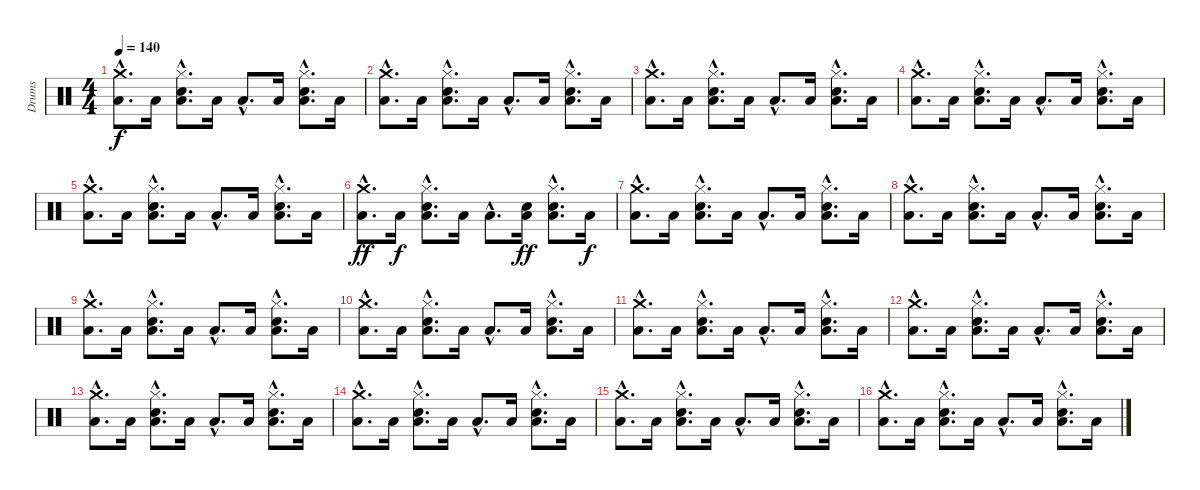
\track ("Drums" "Drums") {instrument percussion}
\staff {score}
\articulation defaults
\ts (4 4)
\tempo 140
\clef neutral
\ks c
("Crash medium (hit)"{hac} "Low Floor Tom (hit)"{hac}).8{d dy f} "Low Floor Tom (hit)".16 ("Hi-Hat (closed)"{hac} "Snare (hit) 2"{hac} "Low Floor Tom (hit)"{hac}).8{d} "Low Floor Tom (hit)".16 "Low Floor Tom (hit)"{hac}.8{d} "Low Floor Tom (hit)".16 ("Hi-Hat (closed)"{hac} "Snare (hit) 2"{hac} "Low Floor Tom (hit)"{hac}).8{d} "Low Floor Tom (hit)".16 |
("Crash medium (hit)"{hac} "Low Floor Tom (hit)"{hac}).8{d} "Low Floor Tom (hit)".16 ("Hi-Hat (closed)"{hac} "Snare (hit) 2"{hac} "Low Floor Tom (hit)"{hac}).8{d} "Low Floor Tom (hit)".16 "Low Floor Tom (hit)"{hac}.8{d} "Low Floor Tom (hit)".16 ("Hi-Hat (closed)"{hac} "Snare (hit) 2"{hac} "Low Floor Tom (hit)"{hac}).8{d} "Low Floor Tom (hit)".16 |
("Crash medium (hit)"{hac} "Low Floor Tom (hit)"{hac}).8{d} "Low Floor Tom (hit)".16 ("Hi-Hat (closed)"{hac} "Snare (hit) 2"{hac} "Low Floor Tom (hit)"{hac}).8{d} "Low Floor Tom (hit)".16 "Low Floor Tom (hit)"{hac}.8{d} "Low Floor Tom (hit)".16 ("Hi-Hat (closed)"{hac} "Snare (hit) 2"{hac} "Low Floor Tom (hit)"{hac}).8{d} "Low Floor Tom (hit)".16 |
("Crash medium (hit)"{hac} "Low Floor Tom (hit)"{hac}).8{d} "Low Floor Tom (hit)".16 ("Hi-Hat (closed)"{hac} "Snare (hit) 2"{hac} "Low Floor Tom (hit)"{hac}).8{d} "Low Floor Tom (hit)".16 "Low Floor Tom (hit)"{hac}.8{d} "Low Floor Tom (hit)".16 ("Hi-Hat (closed)"{hac} "Snare (hit) 2"{hac} "Low Floor Tom (hit)"{hac}).8{d} "Low Floor Tom (hit)".16 |
("Crash medium (hit)"{hac} "Low Floor Tom (hit)"{hac}).8{d} "Low Floor Tom (hit)".16 ("Hi-Hat (closed)"{hac} "Snare (hit) 2"{hac} "Low Floor Tom (hit)"{hac}).8{d} "Low Floor Tom (hit)".16 "Low Floor Tom (hit)"{hac}.8{d} "Low Floor Tom (hit)".16 ("Hi-Hat (closed)"{hac} "Snare (hit) 2"{hac} "Low Floor Tom (hit)"{hac}).8{d} "Low Floor Tom (hit)".16 |
("Crash medium (hit)"{hac} "Low Floor Tom (hit)"{hac}).8{d dy ff} "Low Floor Tom (hit)".16{dy f} ("Hi-Hat (closed)"{hac} "Snare (hit) 2"{hac} "Low Floor Tom (hit)"{hac}).8{d} "Low Floor Tom (hit)".16 "Low Floor Tom (hit)"{hac}.8{d} ("Snare (hit) 2" "Low Floor Tom (hit)").16{dy ff} ("Hi-Hat (closed)"{hac} "Snare (hit) 2"{hac} "Low Floor Tom (hit)"{hac}).8{d} "Low Floor Tom (hit)".16{dy f} |
("Crash medium (hit)"{hac} "Low Floor Tom (hit)"{hac}).8{d} "Low Floor Tom (hit)".16 ("Hi-Hat (closed)"{hac} "Snare (hit) 2"{hac} "Low Floor Tom (hit)"{hac}).8{d} "Low Floor Tom (hit)".16 "Low Floor Tom (hit)"{hac}.8{d} "Low Floor Tom (hit)".16 ("Hi-Hat (closed)"{hac} "Snare (hit) 2"{hac} "Low Floor Tom (hit)"{hac}).8{d} "Low Floor Tom (hit)".16 |
("Crash medium (hit)"{hac} "Low Floor Tom (hit)"{hac}).8{d} "Low Floor Tom (hit)".16 ("Hi-Hat (closed)"{hac} "Snare (hit) 2"{hac} "Low Floor Tom (hit)"{hac}).8{d} "Low Floor Tom (hit)".16 "Low Floor Tom (hit)"{hac}.8{d} "Low Floor Tom (hit)".16 ("Hi-Hat (closed)"{hac} "Snare (hit) 2"{hac} "Low Floor Tom (hit)"{hac}).8{d} "Low Floor Tom (hit)".16 |
("Crash medium (hit)"{hac} "Low Floor Tom (hit)"{hac}).8{d} "Low Floor Tom (hit)".16 ("Hi-Hat (closed)"{hac} "Snare (hit) 2"{hac} "Low Floor Tom (hit)"{hac}).8{d} "Low Floor Tom (hit)".16 "Low Floor Tom (hit)"{hac}.8{d} "Low Floor Tom (hit)".16 ("Hi-Hat (closed)"{hac} "Snare (hit) 2"{hac} "Low Floor Tom (hit)"{hac}).8{d} "Low Floor Tom (hit)".16 |
("Crash medium (hit)"{hac} "Low Floor Tom (hit)"{hac}).8{d} "Low Floor Tom (hit)".16 ("Hi-Hat (closed)"{hac} "Snare (hit) 2"{hac} "Low Floor Tom (hit)"{hac}).8{d} "Low Floor Tom (hit)".16 "Low Floor Tom (hit)"{hac}.8{d} "Low Floor Tom (hit)".16 ("Hi-Hat (closed)"{hac} "Snare (hit) 2"{hac} "Low Floor Tom (hit)"{hac}).8{d} "Low Floor Tom (hit)".16 |
("Crash medium (hit)"{hac} "Low Floor Tom (hit)"{hac}).8{d} "Low Floor Tom (hit)".16 ("Hi-Hat (closed)"{hac} "Snare (hit) 2"{hac} "Low Floor Tom (hit)"{hac}).8{d} "Low Floor Tom (hit)".16 "Low Floor Tom (hit)"{hac}.8{d} "Low Floor Tom (hit)".16 ("Hi-Hat (closed)"{hac} "Snare (hit) 2"{hac} "Low Floor Tom (hit)"{hac}).8{d} "Low Floor Tom (hit)".16 |
("Crash medium (hit)"{hac} "Low Floor Tom (hit)"{hac}).8{d} "Low Floor Tom (hit)".16 ("Hi-Hat (closed)"{hac} "Snare (hit) 2"{hac} "Low Floor Tom (hit)"{hac}).8{d} "Low Floor Tom (hit)".16 "Low Floor Tom (hit)"{hac}.8{d} "Low Floor Tom (hit)".16 ("Hi-Hat (closed)"{hac} "Snare (hit) 2"{hac} "Low Floor Tom (hit)"{hac}).8{d} "Low Floor Tom (hit)".16 |
("Crash medium (hit)"{hac} "Low Floor Tom (hit)"{hac}).8{d} "Low Floor Tom (hit)".16 ("Hi-Hat (closed)"{hac} "Snare (hit) 2"{hac} "Low Floor Tom (hit)"{hac}).8{d} "Low Floor Tom (hit)".16 "Low Floor Tom (hit)"{hac}.8{d} "Low Floor Tom (hit)".16 ("Hi-Hat (closed)"{hac} "Snare (hit) 2"{hac} "Low Floor Tom (hit)"{hac}).8{d} "Low Floor Tom (hit)".16 |
("Crash medium (hit)"{hac} "Low Floor Tom (hit)"{hac}).8{d} "Low Floor Tom (hit)".16 ("Hi-Hat (closed)"{hac} "Snare (hit) 2"{hac} "Low Floor Tom (hit)"{hac}).8{d} "Low Floor Tom (hit)".16 "Low Floor Tom (hit)"{hac}.8{d} "Low Floor Tom (hit)".16 ("Hi-Hat (closed)"{hac} "Snare (hit) 2"{hac} "Low Floor Tom (hit)"{hac}).8{d} "Low Floor Tom (hit)".16 |
("Crash medium (hit)"{hac} "Low Floor Tom (hit)"{hac}).8{d} "Low Floor Tom (hit)".16 ("Hi-Hat (closed)"{hac} "Snare (hit) 2"{hac} "Low Floor Tom (hit)"{hac}).8{d} "Low Floor Tom (hit)".16 "Low Floor Tom (hit)"{hac}.8{d} "Low Floor Tom (hit)".16 ("Hi-Hat (closed)"{hac} "Snare (hit) 2"{hac} "Low Floor Tom (hit)"{hac}).8{d} "Low Floor Tom (hit)".16 |
("Crash medium (hit)"{hac} "Low Floor Tom (hit)"{hac}).8{d} "Low Floor Tom (hit)".16 ("Hi-Hat (closed)"{hac} "Snare (hit) 2"{hac} "Low Floor Tom (hit)"{hac}).8{d} "Low Floor Tom (hit)".16 "Low Floor Tom (hit)"{hac}.8{d} "Low Floor Tom (hit)".16 ("Hi-Hat (closed)"{hac} "Snare (hit) 2"{hac} "Low Floor Tom (hit)"{hac}).8{d} "Low Floor Tom (hit)".16
